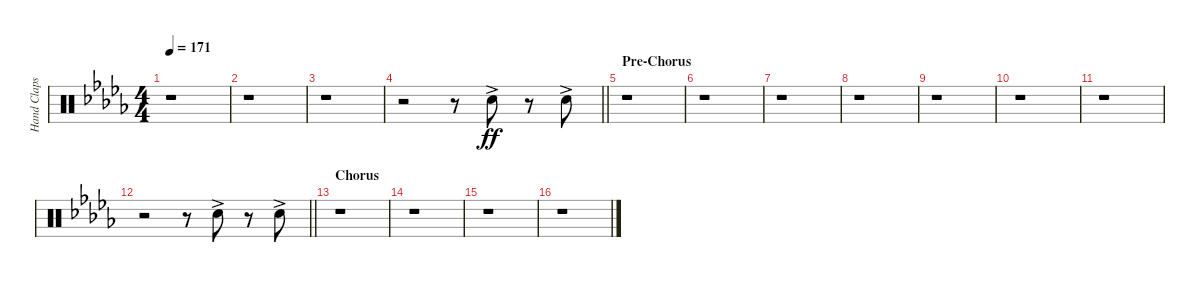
\track ("Hand Claps" "Hand Claps") {instrument percussion}
\staff {score}
\articulation defaults
\ts (4 4)
\tempo 171
\clef neutral
\ks db
r.1{dy ff} |
r.1 |
r.1 |
\barLineRight lightlight
r.2 r.8 "Hand Clap (hit)"{ac}.8 r.8 "Hand Clap (hit)"{ac}.8 |
\section ("" "Pre-Chorus")
r.1 |
r.1 |
r.1 |
r.1 |
r.1 |
r.1 |
r.1 |
\barLineRight lightlight
r.2 r.8 "Hand Clap (hit)"{ac}.8 r.8 "Hand Clap (hit)"{ac}.8 |
\section ("" "Chorus")
r.1 |
r.1 |
r.1 |
r.1
